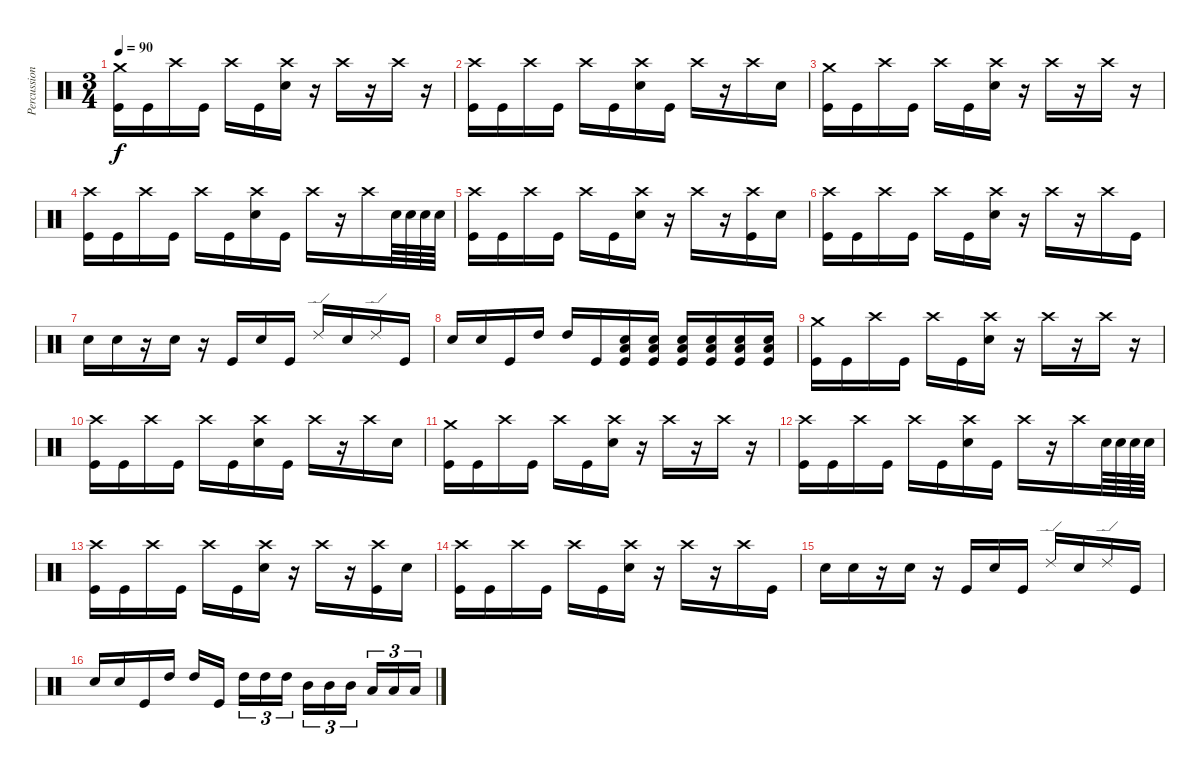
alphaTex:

\track ("Percussion" "Percussion") {instrument percussion}
\staff {score}
\articulation defaults
\ts (3 4)
\tempo 90
\clef neutral
\ks c
("Kick (hit)" "Crash medium (hit)").16{dy f} "Kick (hit)".16 "Crash high (hit)".16 "Kick (hit)".16 "Crash high (hit)".16 "Kick (hit)".16 ("Electric Snare (hit)" "Crash high (hit)").16 r.16 "Crash high (hit)".16 r.16 "Crash high (hit)".16 r.16 |
("Kick (hit)" "Crash high (hit)").16 "Kick (hit)".16 "Crash high (hit)".16 "Kick (hit)".16 "Crash high (hit)".16 "Kick (hit)".16 ("Electric Snare (hit)" "Crash high (hit)").16 "Kick (hit)".16 "Crash high (hit)".16 r.16 "Crash high (hit)".16 "Electric Snare (hit)".16 |
("Kick (hit)" "Crash medium (hit)").16 "Kick (hit)".16 "Crash high (hit)".16 "Kick (hit)".16 "Crash high (hit)".16 "Kick (hit)".16 ("Electric Snare (hit)" "Crash high (hit)").16 r.16 "Crash high (hit)".16 r.16 "Crash high (hit)".16 r.16 |
("Kick (hit)" "Crash high (hit)").16 "Kick (hit)".16 "Crash high (hit)".16 "Kick (hit)".16 "Crash high (hit)".16 "Kick (hit)".16 ("Electric Snare (hit)" "Crash high (hit)").16 "Kick (hit)".16 "Crash high (hit)".16 r.16 "Crash high (hit)".16 "Electric Snare (hit)".64 "Electric Snare (hit)".64 "Electric Snare (hit)".64 "Electric Snare (hit)".64 |
("Kick (hit)" "Crash high (hit)").16 "Kick (hit)".16 "Crash high (hit)".16 "Kick (hit)".16 "Crash high (hit)".16 "Kick (hit)".16 ("Electric Snare (hit)" "Crash high (hit)").16 r.16 "Crash high (hit)".16 r.16 ("Kick (hit)" "Crash high (hit)").16 "Electric Snare (hit)".16 |
("Kick (hit)" "Crash high (hit)").16 "Kick (hit)".16 "Crash high (hit)".16 "Kick (hit)".16 "Crash high (hit)".16 "Kick (hit)".16 ("Electric Snare (hit)" "Crash high (hit)").16 r.16 "Crash high (hit)".16 r.16 "Crash high (hit)".16 "Kick (hit)".16 |
"Electric Snare (hit)".16 "Electric Snare (hit)".16 r.16 "Electric Snare (hit)".16 r.16 "Kick (hit)".16 "Electric Snare (hit)".16 "Kick (hit)".16 "Ride (edge) 2".16 "Electric Snare (hit)".16 "Ride (edge) 2".16 "Kick (hit)".16 |
"Electric Snare (hit)".16 "Electric Snare (hit)".16 "Kick (hit)".16 "High Tom (hit)".16 "High Tom (hit)".16 "Kick (hit)".16 ("Kick (hit)" "Electric Snare (hit)" "Low Floor Tom (hit)").16 ("Kick (hit)" "Electric Snare (hit)" "Low Floor Tom (hit)").16 ("Kick (hit)" "Electric Snare (hit)" "Low Floor Tom (hit)").16 ("Kick (hit)" "Electric Snare (hit)" "Low Floor Tom (hit)").16 ("Kick (hit)" "Electric Snare (hit)" "Low Floor Tom (hit)").16 ("Kick (hit)" "Electric Snare (hit)" "Low Floor Tom (hit)").16 |
("Kick (hit)" "Crash medium (hit)").16 "Kick (hit)".16 "Crash high (hit)".16 "Kick (hit)".16 "Crash high (hit)".16 "Kick (hit)".16 ("Electric Snare (hit)" "Crash high (hit)").16 r.16 "Crash high (hit)".16 r.16 "Crash high (hit)".16 r.16 |
("Kick (hit)" "Crash high (hit)").16 "Kick (hit)".16 "Crash high (hit)".16 "Kick (hit)".16 "Crash high (hit)".16 "Kick (hit)".16 ("Electric Snare (hit)" "Crash high (hit)").16 "Kick (hit)".16 "Crash high (hit)".16 r.16 "Crash high (hit)".16 "Electric Snare (hit)".16 |
("Kick (hit)" "Crash medium (hit)").16 "Kick (hit)".16 "Crash high (hit)".16 "Kick (hit)".16 "Crash high (hit)".16 "Kick (hit)".16 ("Electric Snare (hit)" "Crash high (hit)").16 r.16 "Crash high (hit)".16 r.16 "Crash high (hit)".16 r.16 |
("Kick (hit)" "Crash high (hit)").16 "Kick (hit)".16 "Crash high (hit)".16 "Kick (hit)".16 "Crash high (hit)".16 "Kick (hit)".16 ("Electric Snare (hit)" "Crash high (hit)").16 "Kick (hit)".16 "Crash high (hit)".16 r.16 "Crash high (hit)".16 "Electric Snare (hit)".64 "Electric Snare (hit)".64 "Electric Snare (hit)".64 "Electric Snare (hit)".64 |
("Kick (hit)" "Crash high (hit)").16 "Kick (hit)".16 "Crash high (hit)".16 "Kick (hit)".16 "Crash high (hit)".16 "Kick (hit)".16 ("Electric Snare (hit)" "Crash high (hit)").16 r.16 "Crash high (hit)".16 r.16 ("Kick (hit)" "Crash high (hit)").16 "Electric Snare (hit)".16 |
("Kick (hit)" "Crash high (hit)").16 "Kick (hit)".16 "Crash high (hit)".16 "Kick (hit)".16 "Crash high (hit)".16 "Kick (hit)".16 ("Electric Snare (hit)" "Crash high (hit)").16 r.16 "Crash high (hit)".16 r.16 "Crash high (hit)".16 "Kick (hit)".16 |
"Electric Snare (hit)".16 "Electric Snare (hit)".16 r.16 "Electric Snare (hit)".16 r.16 "Kick (hit)".16 "Electric Snare (hit)".16 "Kick (hit)".16 "Ride (edge) 2".16 "Electric Snare (hit)".16 "Ride (edge) 2".16 "Kick (hit)".16 |
"Electric Snare (hit)".16 "Electric Snare (hit)".16 "Kick (hit)".16 "High Tom (hit)".16 "High Tom (hit)".16 "Kick (hit)".16{beam splitsecondary} "High Tom (hit)".16{tu (3 2)} "High Tom (hit)".16{tu (3 2)} "High Tom (hit)".16{tu (3 2)} "Mid Tom (hit)".16{tu (3 2)} "Mid Tom (hit)".16{tu (3 2)} "Mid Tom (hit)".16{tu (3 2) beam splitsecondary} "Low Tom (hit)".16{tu (3 2)} "Low Tom (hit)".16{tu (3 2)} "Low Tom (hit)".16{tu (3 2)}
